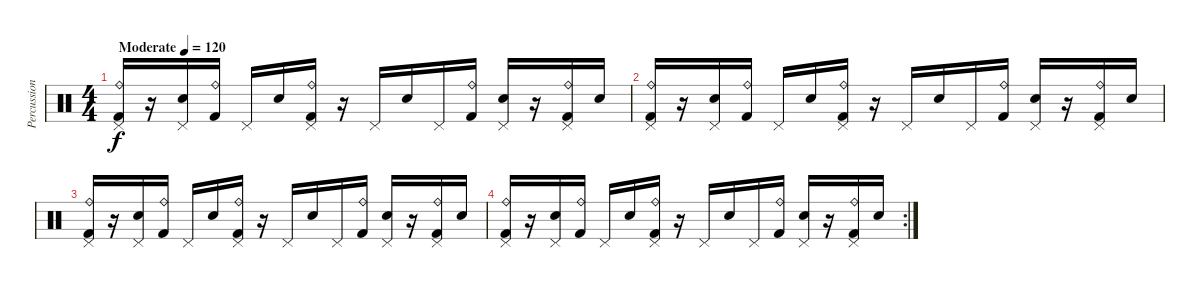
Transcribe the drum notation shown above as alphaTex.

\track ("Percussion" "Percussion") {instrument percussion}
\staff {score}
\articulation defaults
\ts (4 4)
\tempo (120 "Moderate")
\clef neutral
\ks c
("Ride (bell)" "Pedal Hi-Hat (hit)" "Kick (hit) 2").16{dy f} r.16 ("Electric Snare (hit)" "Pedal Hi-Hat (hit)").16 ("Ride (bell)" "Kick (hit) 2").16 "Pedal Hi-Hat (hit)".16 "Electric Snare (hit)".16 ("Ride (bell)" "Pedal Hi-Hat (hit)" "Kick (hit) 2").16 r.16 "Pedal Hi-Hat (hit)".16 "Electric Snare (hit)".16 "Pedal Hi-Hat (hit)".16 ("Ride (bell)" "Kick (hit) 2").16 ("Electric Snare (hit)" "Pedal Hi-Hat (hit)").16 r.16 ("Ride (bell)" "Pedal Hi-Hat (hit)" "Kick (hit) 2").16 "Electric Snare (hit)".16 |
("Ride (bell)" "Pedal Hi-Hat (hit)" "Kick (hit) 2").16 r.16 ("Electric Snare (hit)" "Pedal Hi-Hat (hit)").16 ("Ride (bell)" "Kick (hit) 2").16 "Pedal Hi-Hat (hit)".16 "Electric Snare (hit)".16 ("Ride (bell)" "Pedal Hi-Hat (hit)" "Kick (hit) 2").16 r.16 "Pedal Hi-Hat (hit)".16 "Electric Snare (hit)".16 "Pedal Hi-Hat (hit)".16 ("Ride (bell)" "Kick (hit) 2").16 ("Electric Snare (hit)" "Pedal Hi-Hat (hit)").16 r.16 ("Ride (bell)" "Pedal Hi-Hat (hit)" "Kick (hit) 2").16 "Electric Snare (hit)".16 |
("Ride (bell)" "Pedal Hi-Hat (hit)" "Kick (hit) 2").16 r.16 ("Electric Snare (hit)" "Pedal Hi-Hat (hit)").16 ("Ride (bell)" "Kick (hit) 2").16 "Pedal Hi-Hat (hit)".16 "Electric Snare (hit)".16 ("Ride (bell)" "Pedal Hi-Hat (hit)" "Kick (hit) 2").16 r.16 "Pedal Hi-Hat (hit)".16 "Electric Snare (hit)".16 "Pedal Hi-Hat (hit)".16 ("Ride (bell)" "Kick (hit) 2").16 ("Electric Snare (hit)" "Pedal Hi-Hat (hit)").16 r.16 ("Ride (bell)" "Pedal Hi-Hat (hit)" "Kick (hit) 2").16 "Electric Snare (hit)".16 |
\rc 2
("Ride (bell)" "Pedal Hi-Hat (hit)" "Kick (hit) 2").16 r.16 ("Electric Snare (hit)" "Pedal Hi-Hat (hit)").16 ("Ride (bell)" "Kick (hit) 2").16 "Pedal Hi-Hat (hit)".16 "Electric Snare (hit)".16 ("Ride (bell)" "Pedal Hi-Hat (hit)" "Kick (hit) 2").16 r.16 "Pedal Hi-Hat (hit)".16 "Electric Snare (hit)".16 "Pedal Hi-Hat (hit)".16 ("Ride (bell)" "Kick (hit) 2").16 ("Electric Snare (hit)" "Pedal Hi-Hat (hit)").16 r.16 ("Ride (bell)" "Pedal Hi-Hat (hit)" "Kick (hit) 2").16 "Electric Snare (hit)".16
